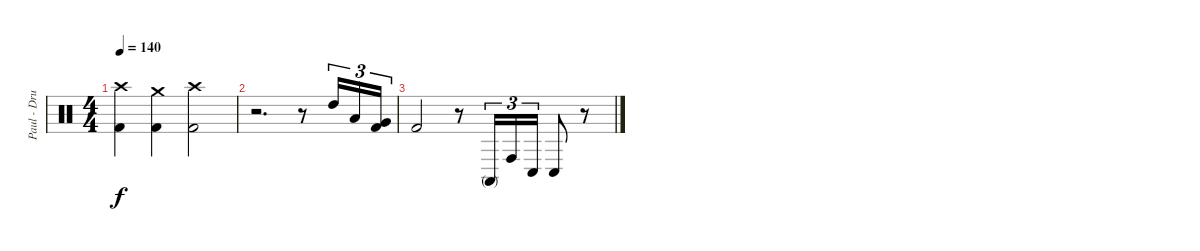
\track ("Paul - Drums" "Paul - Dru") {instrument percussion}
\staff {score}
\articulation defaults
\ts (4 4)
\tempo 140
\clef neutral
\ks c
("Crash high (hit)" "Kick (hit) 2").4{dy f} ("Crash medium (hit)" "Kick (hit) 2").4 ("Crash high (hit)" "Kick (hit) 2").2 |
r.2{d} r.8 "High Tom (hit)".16{tu (3 2)} "Low Tom (hit)".16{tu (3 2)} ("Very Low Tom (hit)" "Kick (hit) 2").16{tu (3 2)} |
"Kick (hit) 2".2 r.8 "Conga high (mute)".16{tu (3 2)} "Conga high (hit)".16{tu (3 2)} "Conga low (hit)".16{tu (3 2)} "Conga low (hit)".8 r.8
